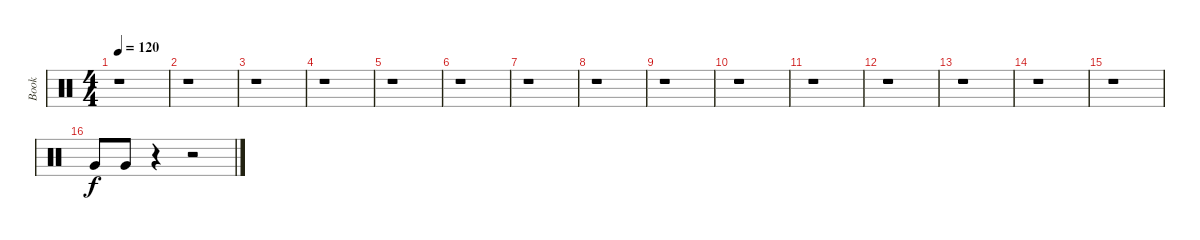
\track ("Book" "Book") {instrument percussion}
\staff {score}
\articulation defaults
\ts (4 4)
\tempo 120
\clef neutral
\ks c
r.1{dy f} |
r.1 |
r.1 |
r.1 |
r.1 |
r.1 |
r.1 |
r.1 |
r.1 |
r.1 |
r.1 |
r.1 |
r.1 |
r.1 |
r.1 |
"Very Low Tom (hit)".8 "Very Low Tom (hit)".8 r.4 r.2
